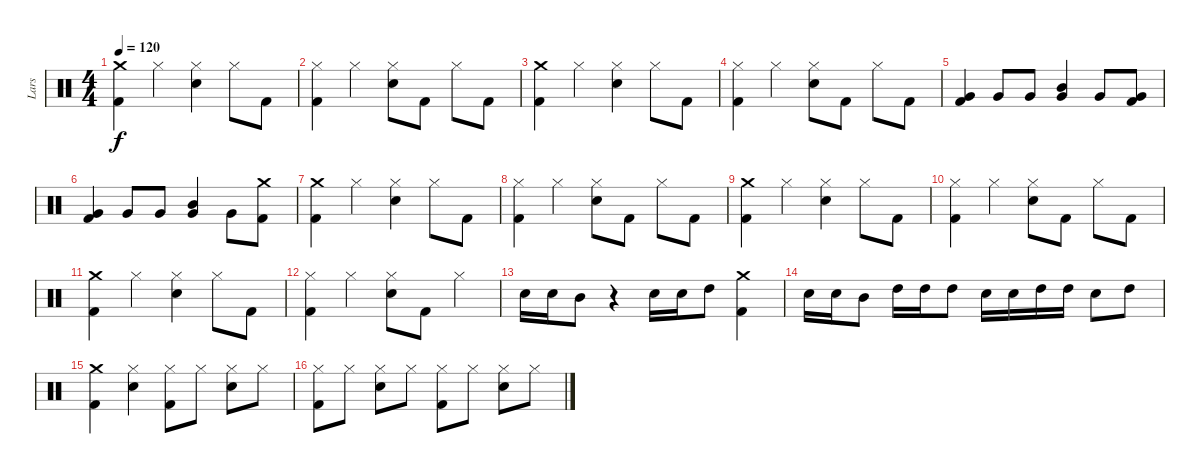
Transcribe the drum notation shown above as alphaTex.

\track ("Lars" "Lars") {instrument percussion}
\staff {score}
\articulation defaults
\ts (4 4)
\tempo 120
\clef neutral
\ks c
("Kick (hit) 2" "Crash medium (hit)").4{dy f} "Hi-Hat (closed)".4 ("Snare (hit) 2" "Hi-Hat (closed)").4 "Hi-Hat (closed)".8 "Kick (hit) 2".8 |
("Hi-Hat (closed)" "Kick (hit) 2").4 "Hi-Hat (closed)".4 ("Snare (hit) 2" "Hi-Hat (closed)").8 "Kick (hit) 2".8 "Hi-Hat (closed)".8 "Kick (hit) 2".8 |
("Kick (hit) 2" "Crash medium (hit)").4 "Hi-Hat (closed)".4 ("Snare (hit) 2" "Hi-Hat (closed)").4 "Hi-Hat (closed)".8 "Kick (hit) 2".8 |
("Hi-Hat (closed)" "Kick (hit) 2").4 "Hi-Hat (closed)".4 ("Snare (hit) 2" "Hi-Hat (closed)").8 "Kick (hit) 2".8 "Hi-Hat (closed)".8 "Kick (hit) 2".8 |
("Kick (hit) 2" "Very Low Tom (hit)").4 "Very Low Tom (hit)".8 "Very Low Tom (hit)".8 ("Mid Tom (hit)" "Very Low Tom (hit)").4 "Very Low Tom (hit)".8 ("Kick (hit) 2" "Very Low Tom (hit)").8 |
("Kick (hit) 2" "Very Low Tom (hit)").4 "Very Low Tom (hit)".8 "Very Low Tom (hit)".8 ("Mid Tom (hit)" "Very Low Tom (hit)").4 "Very Low Tom (hit)".8 ("Crash medium (hit)" "Kick (hit) 2").8 |
("Crash medium (hit)" "Kick (hit) 2").4 "Hi-Hat (closed)".4 ("Snare (hit) 2" "Hi-Hat (closed)").4 "Hi-Hat (closed)".8 "Kick (hit) 2".8 |
("Hi-Hat (closed)" "Kick (hit) 2").4 "Hi-Hat (closed)".4 ("Snare (hit) 2" "Hi-Hat (closed)").8 "Kick (hit) 2".8 "Hi-Hat (closed)".8 "Kick (hit) 2".8 |
("Kick (hit) 2" "Crash medium (hit)").4 "Hi-Hat (closed)".4 ("Snare (hit) 2" "Hi-Hat (closed)").4 "Hi-Hat (closed)".8 "Kick (hit) 2".8 |
("Hi-Hat (closed)" "Kick (hit) 2").4 "Hi-Hat (closed)".4 ("Snare (hit) 2" "Hi-Hat (closed)").8 "Kick (hit) 2".8 "Hi-Hat (closed)".8 "Kick (hit) 2".8 |
("Kick (hit) 2" "Crash medium (hit)").4 "Hi-Hat (closed)".4 ("Snare (hit) 2" "Hi-Hat (closed)").4 "Hi-Hat (closed)".8 "Kick (hit) 2".8 |
("Kick (hit) 2" "Hi-Hat (closed)").4 "Hi-Hat (closed)".4 ("Snare (hit) 2" "Hi-Hat (closed)").8 "Kick (hit) 2".8 "Hi-Hat (closed)".4 |
"Snare (hit) 2".16 "Snare (hit) 2".16 "Mid Tom (hit)".8 r.4 "Snare (hit) 2".16 "Snare (hit) 2".16 "High Tom (hit)".8 ("Crash medium (hit)" "Kick (hit) 2").4 |
"Snare (hit) 2".16 "Snare (hit) 2".16 "Mid Tom (hit)".8 "High Tom (hit)".16 "High Tom (hit)".16 "High Tom (hit)".8 "Snare (hit) 2".16 "Snare (hit) 2".16 "High Tom (hit)".16 "High Tom (hit)".16 "Snare (hit) 2".8 "High Tom (hit)".8 |
("Kick (hit) 2" "Crash medium (hit)").4 ("Hi-Hat (closed)" "Snare (hit) 2").4 ("Kick (hit) 2" "Hi-Hat (closed)").8 "Hi-Hat (closed)".8 ("Snare (hit) 2" "Hi-Hat (closed)").8 "Hi-Hat (closed)".8 |
("Kick (hit) 2" "Hi-Hat (closed)").8 "Hi-Hat (closed)".8 ("Snare (hit) 2" "Hi-Hat (closed)").8 "Hi-Hat (closed)".8 ("Kick (hit) 2" "Hi-Hat (closed)").8 "Hi-Hat (closed)".8 ("Snare (hit) 2" "Hi-Hat (closed)").8 "Hi-Hat (closed)".8
